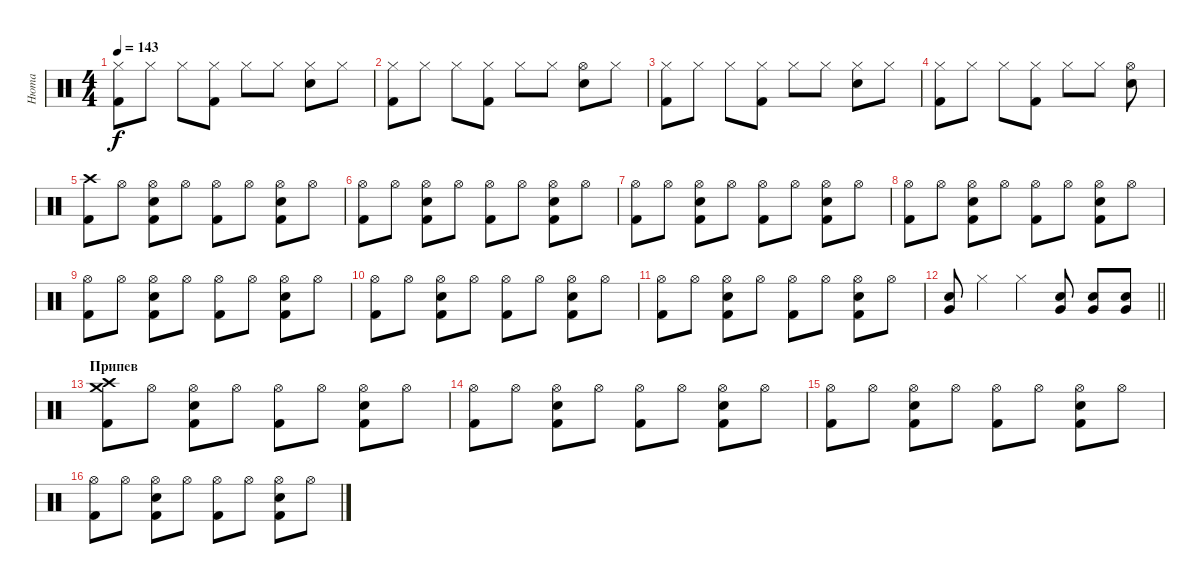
\track ("Нюта" "Нюта") {instrument percussion}
\staff {score}
\articulation defaults
\ts (4 4)
\tempo 143
\clef neutral
\ks c
("Hi-Hat (closed)" "Kick (hit) 2").8{dy f} "Hi-Hat (closed)".8 "Hi-Hat (closed)".8 ("Hi-Hat (closed)" "Kick (hit) 2").8 "Hi-Hat (closed)".8 "Hi-Hat (closed)".8 ("Hi-Hat (closed)" "Snare (hit) 2").8 "Hi-Hat (closed)".8 |
("Hi-Hat (closed)" "Kick (hit) 2").8 "Hi-Hat (closed)".8 "Hi-Hat (closed)".8 ("Hi-Hat (closed)" "Kick (hit) 2").8 "Hi-Hat (closed)".8 "Hi-Hat (closed)".8 ("Hi-Hat (open)" "Snare (hit) 2").8 "Hi-Hat (closed)".8 |
("Hi-Hat (closed)" "Kick (hit) 2").8 "Hi-Hat (closed)".8 "Hi-Hat (closed)".8 ("Hi-Hat (closed)" "Kick (hit) 2").8 "Hi-Hat (closed)".8 "Hi-Hat (closed)".8 ("Hi-Hat (closed)" "Snare (hit) 2").8 "Hi-Hat (closed)".8 |
("Hi-Hat (closed)" "Kick (hit) 2").8 "Hi-Hat (closed)".8 "Hi-Hat (closed)".8 ("Hi-Hat (closed)" "Kick (hit) 2").8 "Hi-Hat (closed)".8 "Hi-Hat (closed)".8 ("Hi-Hat (open)" "Snare (hit) 2").8 |
("Crash high (hit)" "Kick (hit) 2").8 "Hi-Hat (open)".8 ("Hi-Hat (open)" "Snare (hit) 2" "Kick (hit) 2").8 "Hi-Hat (open)".8 ("Hi-Hat (open)" "Kick (hit) 2").8 "Hi-Hat (open)".8 ("Hi-Hat (open)" "Snare (hit) 2" "Kick (hit) 2").8 "Hi-Hat (open)".8 |
("Hi-Hat (open)" "Kick (hit) 2").8 "Hi-Hat (open)".8 ("Hi-Hat (open)" "Snare (hit) 2" "Kick (hit) 2").8 "Hi-Hat (open)".8 ("Hi-Hat (open)" "Kick (hit) 2").8 "Hi-Hat (open)".8 ("Hi-Hat (open)" "Snare (hit) 2" "Kick (hit) 2").8 "Hi-Hat (open)".8 |
("Hi-Hat (open)" "Kick (hit) 2").8 "Hi-Hat (open)".8 ("Hi-Hat (open)" "Snare (hit) 2" "Kick (hit) 2").8 "Hi-Hat (open)".8 ("Hi-Hat (open)" "Kick (hit) 2").8 "Hi-Hat (open)".8 ("Hi-Hat (open)" "Snare (hit) 2" "Kick (hit) 2").8 "Hi-Hat (open)".8 |
("Hi-Hat (open)" "Kick (hit) 2").8 "Hi-Hat (open)".8 ("Hi-Hat (open)" "Snare (hit) 2" "Kick (hit) 2").8 "Hi-Hat (open)".8 ("Hi-Hat (open)" "Kick (hit) 2").8 "Hi-Hat (open)".8 ("Hi-Hat (open)" "Snare (hit) 2" "Kick (hit) 2").8 "Hi-Hat (open)".8 |
("Hi-Hat (open)" "Kick (hit) 2").8 "Hi-Hat (open)".8 ("Hi-Hat (open)" "Snare (hit) 2" "Kick (hit) 2").8 "Hi-Hat (open)".8 ("Hi-Hat (open)" "Kick (hit) 2").8 "Hi-Hat (open)".8 ("Hi-Hat (open)" "Snare (hit) 2" "Kick (hit) 2").8 "Hi-Hat (open)".8 |
("Hi-Hat (open)" "Kick (hit) 2").8 "Hi-Hat (open)".8 ("Hi-Hat (open)" "Snare (hit) 2" "Kick (hit) 2").8 "Hi-Hat (open)".8 ("Hi-Hat (open)" "Kick (hit) 2").8 "Hi-Hat (open)".8 ("Hi-Hat (open)" "Snare (hit) 2" "Kick (hit) 2").8 "Hi-Hat (open)".8 |
("Hi-Hat (open)" "Kick (hit) 2").8 "Hi-Hat (open)".8 ("Hi-Hat (open)" "Snare (hit) 2" "Kick (hit) 2").8 "Hi-Hat (open)".8 ("Hi-Hat (open)" "Kick (hit) 2").8 "Hi-Hat (open)".8 ("Hi-Hat (open)" "Snare (hit) 2" "Kick (hit) 2").8 "Hi-Hat (open)".8 |
\barLineRight lightlight
("Very Low Tom (hit)" "Snare (hit) 2").8 "Hi-Hat (closed)".4 "Hi-Hat (closed)".4 ("Very Low Tom (hit)" "Snare (hit) 2").8 ("Very Low Tom (hit)" "Snare (hit) 2").8 ("Very Low Tom (hit)" "Snare (hit) 2").8 |
\section ("" "Припев")
("Crash medium (hit)" "Crash high (hit)" "Kick (hit) 2").8 "Hi-Hat (open)".8 ("Hi-Hat (open)" "Snare (hit) 2" "Kick (hit) 2").8 "Hi-Hat (open)".8 ("Hi-Hat (open)" "Kick (hit) 2").8 "Hi-Hat (open)".8 ("Hi-Hat (open)" "Snare (hit) 2" "Kick (hit) 2").8 "Hi-Hat (open)".8 |
("Hi-Hat (open)" "Kick (hit) 2").8 "Hi-Hat (open)".8 ("Hi-Hat (open)" "Snare (hit) 2" "Kick (hit) 2").8 "Hi-Hat (open)".8 ("Hi-Hat (open)" "Kick (hit) 2").8 "Hi-Hat (open)".8 ("Hi-Hat (open)" "Snare (hit) 2" "Kick (hit) 2").8 "Hi-Hat (open)".8 |
("Hi-Hat (open)" "Kick (hit) 2").8 "Hi-Hat (open)".8 ("Hi-Hat (open)" "Snare (hit) 2" "Kick (hit) 2").8 "Hi-Hat (open)".8 ("Hi-Hat (open)" "Kick (hit) 2").8 "Hi-Hat (open)".8 ("Hi-Hat (open)" "Snare (hit) 2" "Kick (hit) 2").8 "Hi-Hat (open)".8 |
("Hi-Hat (open)" "Kick (hit) 2").8 "Hi-Hat (open)".8 ("Hi-Hat (open)" "Snare (hit) 2" "Kick (hit) 2").8 "Hi-Hat (open)".8 ("Hi-Hat (open)" "Kick (hit) 2").8 "Hi-Hat (open)".8 ("Hi-Hat (open)" "Snare (hit) 2" "Kick (hit) 2").8 "Hi-Hat (open)".8
